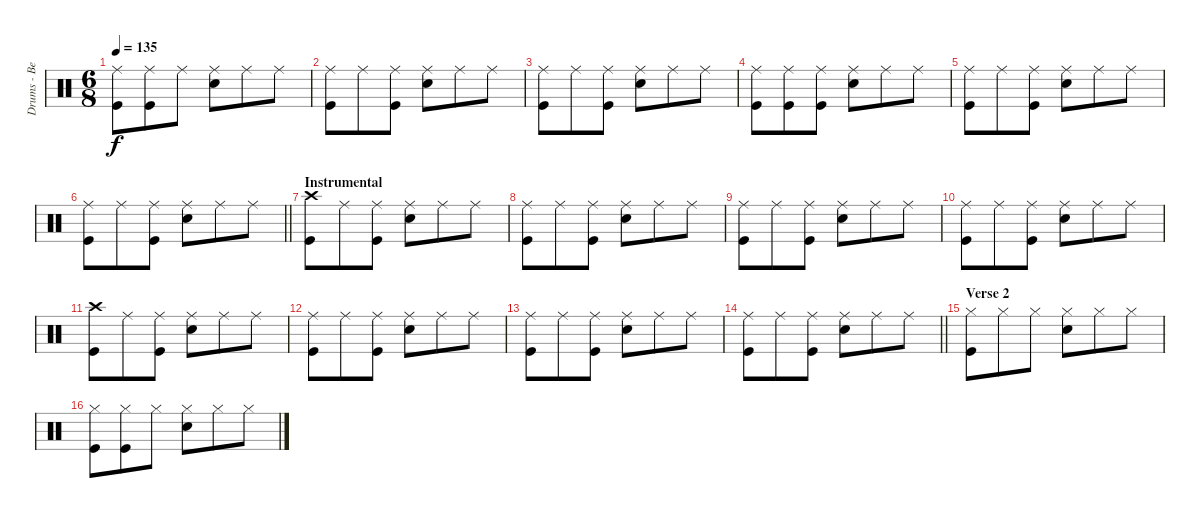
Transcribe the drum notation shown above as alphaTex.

\track ("Drums - Ben Johnston" "Drums - Be") {instrument percussion}
\staff {score}
\articulation defaults
\ts (6 8)
\tempo 135
\clef neutral
\ks c
("Ride (middle)" "Kick (hit)").8{dy f} ("Ride (middle)" "Kick (hit)").8 "Ride (middle)".8 ("Ride (middle)" "Snare (hit) 2").8 "Ride (middle)".8 "Ride (middle)".8 |
("Ride (middle)" "Kick (hit)").8 "Ride (middle)".8 ("Ride (middle)" "Kick (hit)").8 ("Ride (middle)" "Snare (hit) 2").8 "Ride (middle)".8 "Ride (middle)".8 |
("Ride (middle)" "Kick (hit)").8 "Ride (middle)".8 ("Ride (middle)" "Kick (hit)").8 ("Ride (middle)" "Snare (hit) 2").8 "Ride (middle)".8 "Ride (middle)".8 |
("Ride (middle)" "Kick (hit)").8 ("Ride (middle)" "Kick (hit)").8 ("Ride (middle)" "Kick (hit)").8 ("Ride (middle)" "Snare (hit) 2").8 "Ride (middle)".8 "Ride (middle)".8 |
("Ride (middle)" "Kick (hit)").8 "Ride (middle)".8 ("Ride (middle)" "Kick (hit)").8 ("Ride (middle)" "Snare (hit) 2").8 "Ride (middle)".8 "Ride (middle)".8 |
\barLineRight lightlight
("Ride (middle)" "Kick (hit)").8 "Ride (middle)".8 ("Ride (middle)" "Kick (hit)").8 ("Ride (middle)" "Snare (hit) 2").8 "Ride (middle)".8 "Ride (middle)".8 |
\section ("" "Instrumental")
("Crash high (hit)" "Kick (hit)").8 "Ride (middle)".8 ("Ride (middle)" "Kick (hit)").8 ("Ride (middle)" "Snare (hit) 2").8 "Ride (middle)".8 "Ride (middle)".8 |
("Ride (middle)" "Kick (hit)").8 "Ride (middle)".8 ("Ride (middle)" "Kick (hit)").8 ("Ride (middle)" "Snare (hit) 2").8 "Ride (middle)".8 "Ride (middle)".8 |
("Ride (middle)" "Kick (hit)").8 "Ride (middle)".8 ("Ride (middle)" "Kick (hit)").8 ("Ride (middle)" "Snare (hit) 2").8 "Ride (middle)".8 "Ride (middle)".8 |
("Ride (middle)" "Kick (hit)").8 "Ride (middle)".8 ("Ride (middle)" "Kick (hit)").8 ("Ride (middle)" "Snare (hit) 2").8 "Ride (middle)".8 "Ride (middle)".8 |
("Crash high (hit)" "Kick (hit)").8 "Ride (middle)".8 ("Ride (middle)" "Kick (hit)").8 ("Ride (middle)" "Snare (hit) 2").8 "Ride (middle)".8 "Ride (middle)".8 |
("Ride (middle)" "Kick (hit)").8 "Ride (middle)".8 ("Ride (middle)" "Kick (hit)").8 ("Ride (middle)" "Snare (hit) 2").8 "Ride (middle)".8 "Ride (middle)".8 |
("Ride (middle)" "Kick (hit)").8 "Ride (middle)".8 ("Ride (middle)" "Kick (hit)").8 ("Ride (middle)" "Snare (hit) 2").8 "Ride (middle)".8 "Ride (middle)".8 |
\barLineRight lightlight
("Ride (middle)" "Kick (hit)").8 "Ride (middle)".8 ("Ride (middle)" "Kick (hit)").8 ("Ride (middle)" "Snare (hit) 2").8 "Ride (middle)".8 "Ride (middle)".8 |
\section ("" "Verse 2")
("Hi-Hat (closed)" "Kick (hit)").8 "Hi-Hat (closed)".8 "Hi-Hat (closed)".8 ("Hi-Hat (closed)" "Snare (hit) 2").8 "Hi-Hat (closed)".8 "Hi-Hat (closed)".8 |
("Hi-Hat (closed)" "Kick (hit)").8 ("Hi-Hat (closed)" "Kick (hit)").8 "Hi-Hat (closed)".8 ("Hi-Hat (closed)" "Snare (hit) 2").8 "Hi-Hat (closed)".8 "Hi-Hat (closed)".8
